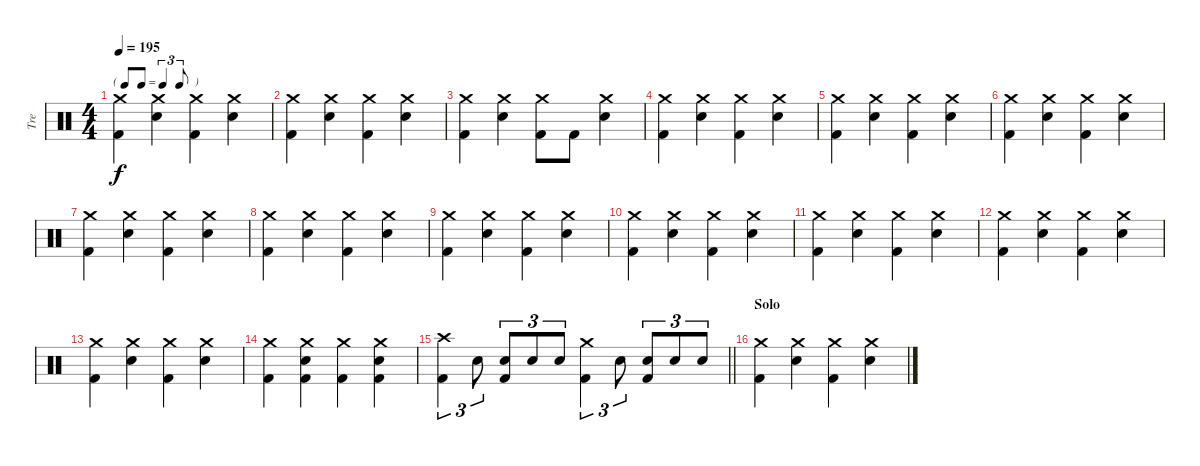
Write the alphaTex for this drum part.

\track ("Tre" "Tre") {instrument percussion}
\staff {score}
\articulation defaults
\ts (4 4)
\tf triplet8th
\tempo 195
\clef neutral
\ks c
("Crash medium (hit)" "Kick (hit) 2").4{dy f} ("Crash medium (hit)" "Snare (hit) 2").4 ("Crash medium (hit)" "Kick (hit) 2").4 ("Crash medium (hit)" "Snare (hit) 2").4 |
("Crash medium (hit)" "Kick (hit) 2").4 ("Crash medium (hit)" "Snare (hit) 2").4 ("Crash medium (hit)" "Kick (hit) 2").4 ("Crash medium (hit)" "Snare (hit) 2").4 |
("Crash medium (hit)" "Kick (hit) 2").4 ("Crash medium (hit)" "Snare (hit) 2").4 ("Crash medium (hit)" "Kick (hit) 2").8 "Kick (hit) 2".8 ("Crash medium (hit)" "Snare (hit) 2").4 |
("Crash medium (hit)" "Kick (hit) 2").4 ("Crash medium (hit)" "Snare (hit) 2").4 ("Crash medium (hit)" "Kick (hit) 2").4 ("Crash medium (hit)" "Snare (hit) 2").4 |
("Crash medium (hit)" "Kick (hit) 2").4 ("Crash medium (hit)" "Snare (hit) 2").4 ("Crash medium (hit)" "Kick (hit) 2").4 ("Crash medium (hit)" "Snare (hit) 2").4 |
("Crash medium (hit)" "Kick (hit) 2").4 ("Crash medium (hit)" "Snare (hit) 2").4 ("Crash medium (hit)" "Kick (hit) 2").4 ("Crash medium (hit)" "Snare (hit) 2").4 |
("Crash medium (hit)" "Kick (hit) 2").4 ("Crash medium (hit)" "Snare (hit) 2").4 ("Crash medium (hit)" "Kick (hit) 2").4 ("Crash medium (hit)" "Snare (hit) 2").4 |
("Crash medium (hit)" "Kick (hit) 2").4 ("Crash medium (hit)" "Snare (hit) 2").4 ("Crash medium (hit)" "Kick (hit) 2").4 ("Crash medium (hit)" "Snare (hit) 2").4 |
("Crash medium (hit)" "Kick (hit) 2").4 ("Crash medium (hit)" "Snare (hit) 2").4 ("Crash medium (hit)" "Kick (hit) 2").4 ("Crash medium (hit)" "Snare (hit) 2").4 |
("Crash medium (hit)" "Kick (hit) 2").4 ("Crash medium (hit)" "Snare (hit) 2").4 ("Crash medium (hit)" "Kick (hit) 2").4 ("Crash medium (hit)" "Snare (hit) 2").4 |
("Crash medium (hit)" "Kick (hit) 2").4 ("Crash medium (hit)" "Snare (hit) 2").4 ("Crash medium (hit)" "Kick (hit) 2").4 ("Crash medium (hit)" "Snare (hit) 2").4 |
("Crash medium (hit)" "Kick (hit) 2").4 ("Crash medium (hit)" "Snare (hit) 2").4 ("Crash medium (hit)" "Kick (hit) 2").4 ("Crash medium (hit)" "Snare (hit) 2").4 |
("Crash medium (hit)" "Kick (hit) 2").4 ("Crash medium (hit)" "Snare (hit) 2").4 ("Crash medium (hit)" "Kick (hit) 2").4 ("Crash medium (hit)" "Snare (hit) 2").4 |
("Crash medium (hit)" "Kick (hit) 2").4 ("Crash medium (hit)" "Snare (hit) 2" "Kick (hit) 2").4 ("Crash medium (hit)" "Kick (hit) 2").4 ("Crash medium (hit)" "Snare (hit) 2" "Kick (hit) 2").4 |
\barLineRight lightlight
("Crash high (hit)" "Kick (hit) 2").4{tu (3 2)} "Snare (hit) 2".8{tu (3 2)} ("Snare (hit) 2" "Kick (hit) 2").8{tu (3 2)} "Snare (hit) 2".8{tu (3 2)} "Snare (hit) 2".8{tu (3 2)} ("Crash medium (hit)" "Kick (hit) 2").4{tu (3 2)} "Snare (hit) 2".8{tu (3 2)} ("Snare (hit) 2" "Kick (hit) 2").8{tu (3 2)} "Snare (hit) 2".8{tu (3 2)} "Snare (hit) 2".8{tu (3 2)} |
\section ("" "Solo")
("Crash medium (hit)" "Kick (hit) 2").4 ("Crash medium (hit)" "Snare (hit) 2").4 ("Crash medium (hit)" "Kick (hit) 2").4 ("Crash medium (hit)" "Snare (hit) 2").4
